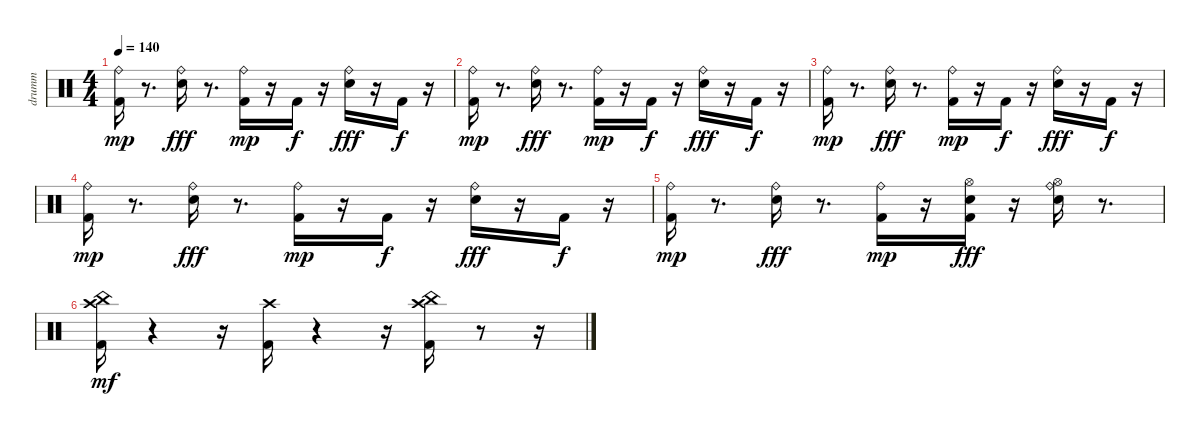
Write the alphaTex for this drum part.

\track ("drumm" "drumm") {instrument percussion}
\staff {score}
\articulation defaults
\ts (4 4)
\tempo 140
\clef neutral
\ks c
("Ride (bell)" "Kick (hit) 2").16{dy mp} r.8{d} ("Ride (bell)" "Electric Snare (hit)").16{dy fff} r.8{d} ("Ride (bell)" "Kick (hit) 2").16{dy mp} r.16 "Kick (hit) 2".16{dy f} r.16 ("Ride (bell)" "Electric Snare (hit)").16{dy fff} r.16 "Kick (hit) 2".16{dy f} r.16 |
("Ride (bell)" "Kick (hit) 2").16{dy mp} r.8{d} ("Ride (bell)" "Electric Snare (hit)").16{dy fff} r.8{d} ("Ride (bell)" "Kick (hit) 2").16{dy mp} r.16 "Kick (hit) 2".16{dy f} r.16 ("Ride (bell)" "Electric Snare (hit)").16{dy fff} r.16 "Kick (hit) 2".16{dy f} r.16 |
("Ride (bell)" "Kick (hit) 2").16{dy mp} r.8{d} ("Ride (bell)" "Electric Snare (hit)").16{dy fff} r.8{d} ("Ride (bell)" "Kick (hit) 2").16{dy mp} r.16 "Kick (hit) 2".16{dy f} r.16 ("Ride (bell)" "Electric Snare (hit)").16{dy fff} r.16 "Kick (hit) 2".16{dy f} r.16 |
("Ride (bell)" "Kick (hit) 2").16{dy mp} r.8{d} ("Ride (bell)" "Electric Snare (hit)").16{dy fff} r.8{d} ("Ride (bell)" "Kick (hit) 2").16{dy mp} r.16 "Kick (hit) 2".16{dy f} r.16 ("Ride (bell)" "Electric Snare (hit)").16{dy fff} r.16 "Kick (hit) 2".16{dy f} r.16 |
("Ride (bell)" "Kick (hit) 2").16{dy mp} r.8{d} ("Ride (bell)" "Electric Snare (hit)").16{dy fff} r.8{d} ("Ride (bell)" "Kick (hit) 2").16{dy mp} r.16 ("Hi-Hat (open)" "Electric Snare (hit)" "Kick (hit) 2").16{dy fff} r.16 ("Hi-Hat (open)" "Ride (bell)" "Electric Snare (hit)").16 r.8{d} |
("Crash high (hit)" "China (hit)" "Kick (hit) 2").16{dy mf} r.4 r.16 ("Crash high (hit)" "Kick (hit) 2").16 r.4 r.16 ("Crash high (hit)" "China (hit)" "Kick (hit) 2").16 r.8 r.16
